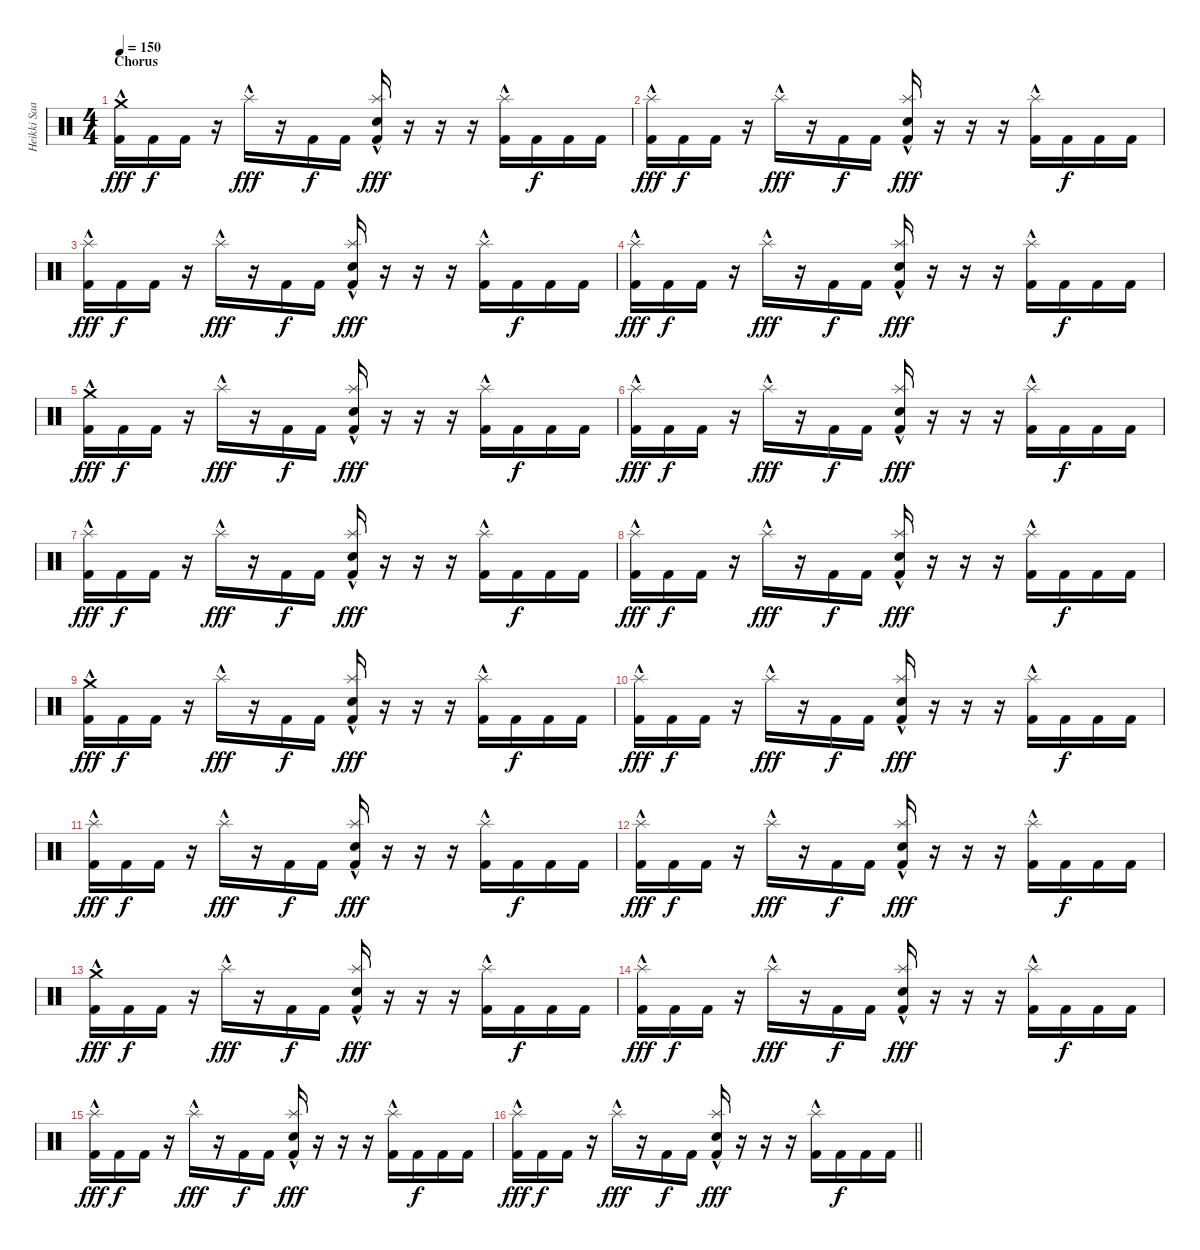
\track ("Heikki Saari" "Heikki Saa") {instrument percussion}
\staff {score}
\articulation defaults
\ts (4 4)
\section ("" "Chorus")
\tempo 150
\clef neutral
\ks c
("Crash medium (hit)"{hac} "Kick (hit) 2").16{dy fff} "Kick (hit) 2".16{dy f} "Kick (hit) 2".16 r.16 "Splash (hit)"{hac}.16{dy fff} r.16 "Kick (hit) 2".16{dy f} "Kick (hit) 2".16 ("Splash (hit)"{hac} "Electric Snare (hit)" "Kick (hit) 2").16{dy fff} r.16 r.16 r.16 ("Splash (hit)"{hac} "Kick (hit) 2").16 "Kick (hit) 2".16{dy f} "Kick (hit) 2".16 "Kick (hit) 2".16 |
("Splash (hit)"{hac} "Kick (hit) 2").16{dy fff} "Kick (hit) 2".16{dy f} "Kick (hit) 2".16 r.16 "Splash (hit)"{hac}.16{dy fff} r.16 "Kick (hit) 2".16{dy f} "Kick (hit) 2".16 ("Splash (hit)"{hac} "Electric Snare (hit)" "Kick (hit) 2").16{dy fff} r.16 r.16 r.16 ("Splash (hit)"{hac} "Kick (hit) 2").16 "Kick (hit) 2".16{dy f} "Kick (hit) 2".16 "Kick (hit) 2".16 |
("Splash (hit)"{hac} "Kick (hit) 2").16{dy fff} "Kick (hit) 2".16{dy f} "Kick (hit) 2".16 r.16 "Splash (hit)"{hac}.16{dy fff} r.16 "Kick (hit) 2".16{dy f} "Kick (hit) 2".16 ("Splash (hit)"{hac} "Electric Snare (hit)" "Kick (hit) 2").16{dy fff} r.16 r.16 r.16 ("Splash (hit)"{hac} "Kick (hit) 2").16 "Kick (hit) 2".16{dy f} "Kick (hit) 2".16 "Kick (hit) 2".16 |
("Splash (hit)"{hac} "Kick (hit) 2").16{dy fff} "Kick (hit) 2".16{dy f} "Kick (hit) 2".16 r.16 "Splash (hit)"{hac}.16{dy fff} r.16 "Kick (hit) 2".16{dy f} "Kick (hit) 2".16 ("Splash (hit)"{hac} "Electric Snare (hit)" "Kick (hit) 2").16{dy fff} r.16 r.16 r.16 ("Splash (hit)"{hac} "Kick (hit) 2").16 "Kick (hit) 2".16{dy f} "Kick (hit) 2".16 "Kick (hit) 2".16 |
("Crash medium (hit)"{hac} "Kick (hit) 2").16{dy fff} "Kick (hit) 2".16{dy f} "Kick (hit) 2".16 r.16 "Splash (hit)"{hac}.16{dy fff} r.16 "Kick (hit) 2".16{dy f} "Kick (hit) 2".16 ("Splash (hit)"{hac} "Electric Snare (hit)" "Kick (hit) 2").16{dy fff} r.16 r.16 r.16 ("Splash (hit)"{hac} "Kick (hit) 2").16 "Kick (hit) 2".16{dy f} "Kick (hit) 2".16 "Kick (hit) 2".16 |
("Splash (hit)"{hac} "Kick (hit) 2").16{dy fff} "Kick (hit) 2".16{dy f} "Kick (hit) 2".16 r.16 "Splash (hit)"{hac}.16{dy fff} r.16 "Kick (hit) 2".16{dy f} "Kick (hit) 2".16 ("Splash (hit)"{hac} "Electric Snare (hit)" "Kick (hit) 2").16{dy fff} r.16 r.16 r.16 ("Splash (hit)"{hac} "Kick (hit) 2").16 "Kick (hit) 2".16{dy f} "Kick (hit) 2".16 "Kick (hit) 2".16 |
("Splash (hit)"{hac} "Kick (hit) 2").16{dy fff} "Kick (hit) 2".16{dy f} "Kick (hit) 2".16 r.16 "Splash (hit)"{hac}.16{dy fff} r.16 "Kick (hit) 2".16{dy f} "Kick (hit) 2".16 ("Splash (hit)"{hac} "Electric Snare (hit)" "Kick (hit) 2").16{dy fff} r.16 r.16 r.16 ("Splash (hit)"{hac} "Kick (hit) 2").16 "Kick (hit) 2".16{dy f} "Kick (hit) 2".16 "Kick (hit) 2".16 |
("Splash (hit)"{hac} "Kick (hit) 2").16{dy fff} "Kick (hit) 2".16{dy f} "Kick (hit) 2".16 r.16 "Splash (hit)"{hac}.16{dy fff} r.16 "Kick (hit) 2".16{dy f} "Kick (hit) 2".16 ("Splash (hit)"{hac} "Electric Snare (hit)" "Kick (hit) 2").16{dy fff} r.16 r.16 r.16 ("Splash (hit)"{hac} "Kick (hit) 2").16 "Kick (hit) 2".16{dy f} "Kick (hit) 2".16 "Kick (hit) 2".16 |
("Crash medium (hit)"{hac} "Kick (hit) 2").16{dy fff} "Kick (hit) 2".16{dy f} "Kick (hit) 2".16 r.16 "Splash (hit)"{hac}.16{dy fff} r.16 "Kick (hit) 2".16{dy f} "Kick (hit) 2".16 ("Splash (hit)"{hac} "Electric Snare (hit)" "Kick (hit) 2").16{dy fff} r.16 r.16 r.16 ("Splash (hit)"{hac} "Kick (hit) 2").16 "Kick (hit) 2".16{dy f} "Kick (hit) 2".16 "Kick (hit) 2".16 |
("Splash (hit)"{hac} "Kick (hit) 2").16{dy fff} "Kick (hit) 2".16{dy f} "Kick (hit) 2".16 r.16 "Splash (hit)"{hac}.16{dy fff} r.16 "Kick (hit) 2".16{dy f} "Kick (hit) 2".16 ("Splash (hit)"{hac} "Electric Snare (hit)" "Kick (hit) 2").16{dy fff} r.16 r.16 r.16 ("Splash (hit)"{hac} "Kick (hit) 2").16 "Kick (hit) 2".16{dy f} "Kick (hit) 2".16 "Kick (hit) 2".16 |
("Splash (hit)"{hac} "Kick (hit) 2").16{dy fff} "Kick (hit) 2".16{dy f} "Kick (hit) 2".16 r.16 "Splash (hit)"{hac}.16{dy fff} r.16 "Kick (hit) 2".16{dy f} "Kick (hit) 2".16 ("Splash (hit)"{hac} "Electric Snare (hit)" "Kick (hit) 2").16{dy fff} r.16 r.16 r.16 ("Splash (hit)"{hac} "Kick (hit) 2").16 "Kick (hit) 2".16{dy f} "Kick (hit) 2".16 "Kick (hit) 2".16 |
("Splash (hit)"{hac} "Kick (hit) 2").16{dy fff} "Kick (hit) 2".16{dy f} "Kick (hit) 2".16 r.16 "Splash (hit)"{hac}.16{dy fff} r.16 "Kick (hit) 2".16{dy f} "Kick (hit) 2".16 ("Splash (hit)"{hac} "Electric Snare (hit)" "Kick (hit) 2").16{dy fff} r.16 r.16 r.16 ("Splash (hit)"{hac} "Kick (hit) 2").16 "Kick (hit) 2".16{dy f} "Kick (hit) 2".16 "Kick (hit) 2".16 |
("Crash medium (hit)"{hac} "Kick (hit) 2").16{dy fff} "Kick (hit) 2".16{dy f} "Kick (hit) 2".16 r.16 "Splash (hit)"{hac}.16{dy fff} r.16 "Kick (hit) 2".16{dy f} "Kick (hit) 2".16 ("Splash (hit)"{hac} "Electric Snare (hit)" "Kick (hit) 2").16{dy fff} r.16 r.16 r.16 ("Splash (hit)"{hac} "Kick (hit) 2").16 "Kick (hit) 2".16{dy f} "Kick (hit) 2".16 "Kick (hit) 2".16 |
("Splash (hit)"{hac} "Kick (hit) 2").16{dy fff} "Kick (hit) 2".16{dy f} "Kick (hit) 2".16 r.16 "Splash (hit)"{hac}.16{dy fff} r.16 "Kick (hit) 2".16{dy f} "Kick (hit) 2".16 ("Splash (hit)"{hac} "Electric Snare (hit)" "Kick (hit) 2").16{dy fff} r.16 r.16 r.16 ("Splash (hit)"{hac} "Kick (hit) 2").16 "Kick (hit) 2".16{dy f} "Kick (hit) 2".16 "Kick (hit) 2".16 |
("Splash (hit)"{hac} "Kick (hit) 2").16{dy fff} "Kick (hit) 2".16{dy f} "Kick (hit) 2".16 r.16 "Splash (hit)"{hac}.16{dy fff} r.16 "Kick (hit) 2".16{dy f} "Kick (hit) 2".16 ("Splash (hit)"{hac} "Electric Snare (hit)" "Kick (hit) 2").16{dy fff} r.16 r.16 r.16 ("Splash (hit)"{hac} "Kick (hit) 2").16 "Kick (hit) 2".16{dy f} "Kick (hit) 2".16 "Kick (hit) 2".16 |
\barLineRight lightlight
("Splash (hit)"{hac} "Kick (hit) 2").16{dy fff} "Kick (hit) 2".16{dy f} "Kick (hit) 2".16 r.16 "Splash (hit)"{hac}.16{dy fff} r.16 "Kick (hit) 2".16{dy f} "Kick (hit) 2".16 ("Splash (hit)"{hac} "Electric Snare (hit)" "Kick (hit) 2").16{dy fff} r.16 r.16 r.16 ("Splash (hit)"{hac} "Kick (hit) 2").16 "Kick (hit) 2".16{dy f} "Kick (hit) 2".16 "Kick (hit) 2".16
